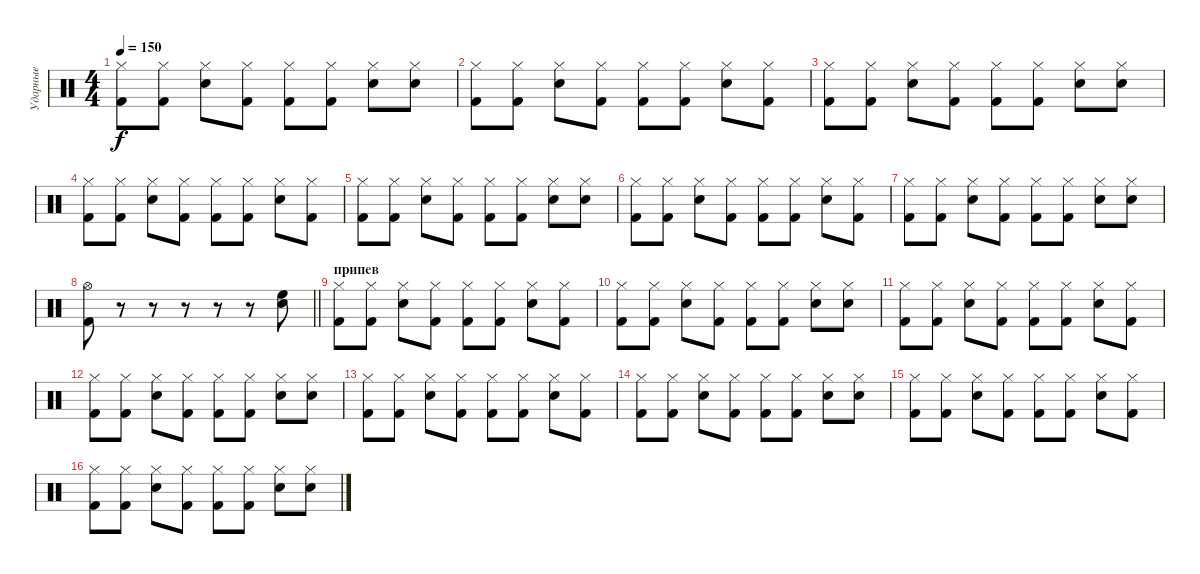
\track ("Ударные" "Ударные") {instrument percussion}
\staff {score}
\articulation defaults
\ts (4 4)
\tempo 150
\clef neutral
\ks c
("Hi-Hat (closed)" "Kick (hit) 2").8{dy f} ("Hi-Hat (closed)" "Kick (hit) 2").8 ("Hi-Hat (closed)" "Snare (hit) 2").8 ("Hi-Hat (closed)" "Kick (hit) 2").8 ("Hi-Hat (closed)" "Kick (hit) 2").8 ("Hi-Hat (closed)" "Kick (hit) 2").8 ("Hi-Hat (closed)" "Snare (hit) 2").8 ("Hi-Hat (closed)" "Snare (hit) 2").8 |
("Hi-Hat (closed)" "Kick (hit) 2").8 ("Hi-Hat (closed)" "Kick (hit) 2").8 ("Hi-Hat (closed)" "Snare (hit) 2").8 ("Hi-Hat (closed)" "Kick (hit) 2").8 ("Hi-Hat (closed)" "Kick (hit) 2").8 ("Hi-Hat (closed)" "Kick (hit) 2").8 ("Hi-Hat (closed)" "Snare (hit) 2").8 ("Hi-Hat (closed)" "Kick (hit) 2").8 |
("Hi-Hat (closed)" "Kick (hit) 2").8 ("Hi-Hat (closed)" "Kick (hit) 2").8 ("Hi-Hat (closed)" "Snare (hit) 2").8 ("Hi-Hat (closed)" "Kick (hit) 2").8 ("Hi-Hat (closed)" "Kick (hit) 2").8 ("Hi-Hat (closed)" "Kick (hit) 2").8 ("Hi-Hat (closed)" "Snare (hit) 2").8 ("Hi-Hat (closed)" "Snare (hit) 2").8 |
("Hi-Hat (closed)" "Kick (hit) 2").8 ("Hi-Hat (closed)" "Kick (hit) 2").8 ("Hi-Hat (closed)" "Snare (hit) 2").8 ("Hi-Hat (closed)" "Kick (hit) 2").8 ("Hi-Hat (closed)" "Kick (hit) 2").8 ("Hi-Hat (closed)" "Kick (hit) 2").8 ("Hi-Hat (closed)" "Snare (hit) 2").8 ("Hi-Hat (closed)" "Kick (hit) 2").8 |
("Hi-Hat (closed)" "Kick (hit) 2").8 ("Hi-Hat (closed)" "Kick (hit) 2").8 ("Hi-Hat (closed)" "Snare (hit) 2").8 ("Hi-Hat (closed)" "Kick (hit) 2").8 ("Hi-Hat (closed)" "Kick (hit) 2").8 ("Hi-Hat (closed)" "Kick (hit) 2").8 ("Hi-Hat (closed)" "Snare (hit) 2").8 ("Hi-Hat (closed)" "Snare (hit) 2").8 |
("Hi-Hat (closed)" "Kick (hit) 2").8 ("Hi-Hat (closed)" "Kick (hit) 2").8 ("Hi-Hat (closed)" "Snare (hit) 2").8 ("Hi-Hat (closed)" "Kick (hit) 2").8 ("Hi-Hat (closed)" "Kick (hit) 2").8 ("Hi-Hat (closed)" "Kick (hit) 2").8 ("Hi-Hat (closed)" "Snare (hit) 2").8 ("Hi-Hat (closed)" "Kick (hit) 2").8 |
("Hi-Hat (closed)" "Kick (hit) 2").8 ("Hi-Hat (closed)" "Kick (hit) 2").8 ("Hi-Hat (closed)" "Snare (hit) 2").8 ("Hi-Hat (closed)" "Kick (hit) 2").8 ("Hi-Hat (closed)" "Kick (hit) 2").8 ("Hi-Hat (closed)" "Kick (hit) 2").8 ("Hi-Hat (closed)" "Snare (hit) 2").8 ("Hi-Hat (closed)" "Snare (hit) 2").8 |
\barLineRight lightlight
("Hi-Hat (open)" "Kick (hit) 2").8 r.8 r.8 r.8 r.8 r.8 ("High Floor Tom (hit)" "Electric Snare (hit)").8 |
\section ("" "припев")
("Hi-Hat (closed)" "Kick (hit) 2").8 ("Hi-Hat (closed)" "Kick (hit) 2").8 ("Hi-Hat (closed)" "Snare (hit) 2").8 ("Hi-Hat (closed)" "Kick (hit) 2").8 ("Hi-Hat (closed)" "Kick (hit) 2").8 ("Hi-Hat (closed)" "Kick (hit) 2").8 ("Hi-Hat (closed)" "Snare (hit) 2").8 ("Hi-Hat (closed)" "Kick (hit) 2").8 |
("Hi-Hat (closed)" "Kick (hit) 2").8 ("Hi-Hat (closed)" "Kick (hit) 2").8 ("Hi-Hat (closed)" "Snare (hit) 2").8 ("Hi-Hat (closed)" "Kick (hit) 2").8 ("Hi-Hat (closed)" "Kick (hit) 2").8 ("Hi-Hat (closed)" "Kick (hit) 2").8 ("Hi-Hat (closed)" "Snare (hit) 2").8 ("Hi-Hat (closed)" "Snare (hit) 2").8 |
("Hi-Hat (closed)" "Kick (hit) 2").8 ("Hi-Hat (closed)" "Kick (hit) 2").8 ("Hi-Hat (closed)" "Snare (hit) 2").8 ("Hi-Hat (closed)" "Kick (hit) 2").8 ("Hi-Hat (closed)" "Kick (hit) 2").8 ("Hi-Hat (closed)" "Kick (hit) 2").8 ("Hi-Hat (closed)" "Snare (hit) 2").8 ("Hi-Hat (closed)" "Kick (hit) 2").8 |
("Hi-Hat (closed)" "Kick (hit) 2").8 ("Hi-Hat (closed)" "Kick (hit) 2").8 ("Hi-Hat (closed)" "Snare (hit) 2").8 ("Hi-Hat (closed)" "Kick (hit) 2").8 ("Hi-Hat (closed)" "Kick (hit) 2").8 ("Hi-Hat (closed)" "Kick (hit) 2").8 ("Hi-Hat (closed)" "Snare (hit) 2").8 ("Hi-Hat (closed)" "Snare (hit) 2").8 |
("Hi-Hat (closed)" "Kick (hit) 2").8 ("Hi-Hat (closed)" "Kick (hit) 2").8 ("Hi-Hat (closed)" "Snare (hit) 2").8 ("Hi-Hat (closed)" "Kick (hit) 2").8 ("Hi-Hat (closed)" "Kick (hit) 2").8 ("Hi-Hat (closed)" "Kick (hit) 2").8 ("Hi-Hat (closed)" "Snare (hit) 2").8 ("Hi-Hat (closed)" "Kick (hit) 2").8 |
("Hi-Hat (closed)" "Kick (hit) 2").8 ("Hi-Hat (closed)" "Kick (hit) 2").8 ("Hi-Hat (closed)" "Snare (hit) 2").8 ("Hi-Hat (closed)" "Kick (hit) 2").8 ("Hi-Hat (closed)" "Kick (hit) 2").8 ("Hi-Hat (closed)" "Kick (hit) 2").8 ("Hi-Hat (closed)" "Snare (hit) 2").8 ("Hi-Hat (closed)" "Snare (hit) 2").8 |
("Hi-Hat (closed)" "Kick (hit) 2").8 ("Hi-Hat (closed)" "Kick (hit) 2").8 ("Hi-Hat (closed)" "Snare (hit) 2").8 ("Hi-Hat (closed)" "Kick (hit) 2").8 ("Hi-Hat (closed)" "Kick (hit) 2").8 ("Hi-Hat (closed)" "Kick (hit) 2").8 ("Hi-Hat (closed)" "Snare (hit) 2").8 ("Hi-Hat (closed)" "Kick (hit) 2").8 |
("Hi-Hat (closed)" "Kick (hit) 2").8 ("Hi-Hat (closed)" "Kick (hit) 2").8 ("Hi-Hat (closed)" "Snare (hit) 2").8 ("Hi-Hat (closed)" "Kick (hit) 2").8 ("Hi-Hat (closed)" "Kick (hit) 2").8 ("Hi-Hat (closed)" "Kick (hit) 2").8 ("Hi-Hat (closed)" "Snare (hit) 2").8 ("Hi-Hat (closed)" "Snare (hit) 2").8
